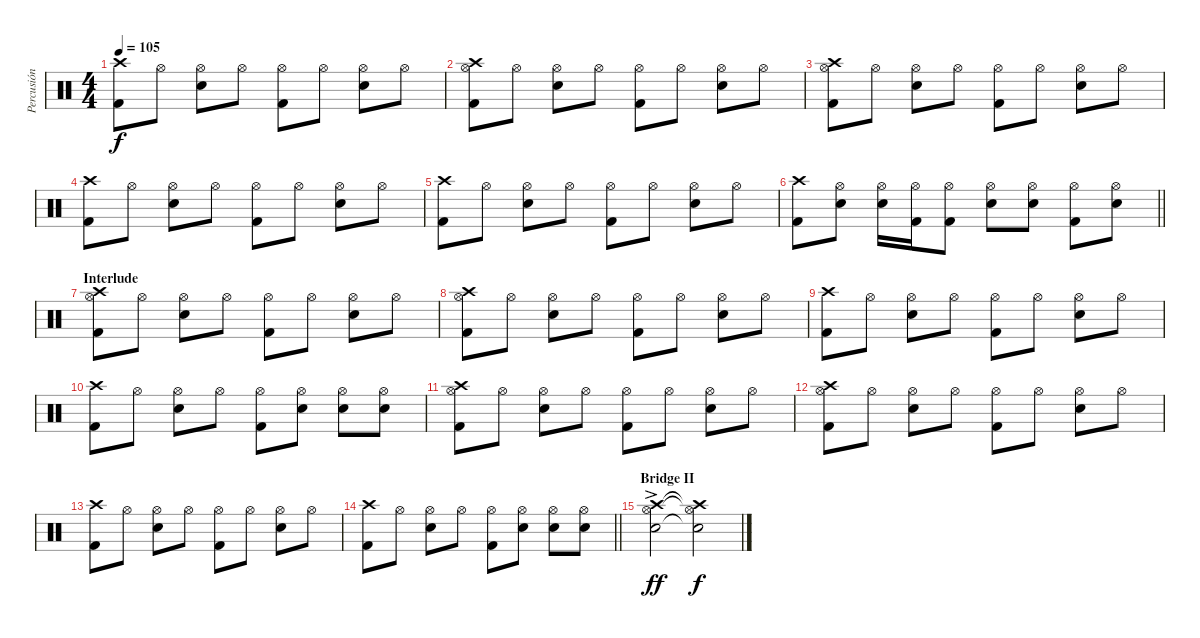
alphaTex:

\track ("Percusión" "Percusión") {instrument percussion}
\staff {score}
\articulation defaults
\ts (4 4)
\tempo 105
\clef neutral
\ks c
("Crash high (hit)" "Kick (hit) 2").8{dy f} "Hi-Hat (open)".8 ("Hi-Hat (open)" "Snare (hit) 2").8 "Hi-Hat (open)".8 ("Hi-Hat (open)" "Kick (hit) 2").8 "Hi-Hat (open)".8 ("Hi-Hat (open)" "Snare (hit) 2").8 "Hi-Hat (open)".8 |
("Hi-Hat (open)" "Kick (hit) 2" "Crash high (hit)").8 "Hi-Hat (open)".8 ("Hi-Hat (open)" "Snare (hit) 2").8 "Hi-Hat (open)".8 ("Hi-Hat (open)" "Kick (hit) 2").8 "Hi-Hat (open)".8 ("Hi-Hat (open)" "Snare (hit) 2").8 "Hi-Hat (open)".8 |
("Hi-Hat (open)" "Kick (hit) 2" "Crash high (hit)").8 "Hi-Hat (open)".8 ("Hi-Hat (open)" "Snare (hit) 2").8 "Hi-Hat (open)".8 ("Hi-Hat (open)" "Kick (hit) 2").8 "Hi-Hat (open)".8 ("Hi-Hat (open)" "Snare (hit) 2").8 "Hi-Hat (open)".8 |
("Crash high (hit)" "Kick (hit) 2").8 "Hi-Hat (open)".8 ("Hi-Hat (open)" "Snare (hit) 2").8 "Hi-Hat (open)".8 ("Hi-Hat (open)" "Kick (hit) 2").8 "Hi-Hat (open)".8 ("Hi-Hat (open)" "Snare (hit) 2").8 "Hi-Hat (open)".8 |
("Crash high (hit)" "Kick (hit) 2").8 "Hi-Hat (open)".8 ("Hi-Hat (open)" "Snare (hit) 2").8 "Hi-Hat (open)".8 ("Hi-Hat (open)" "Kick (hit) 2").8 "Hi-Hat (open)".8 ("Hi-Hat (open)" "Snare (hit) 2").8 "Hi-Hat (open)".8 |
\barLineRight lightlight
("Crash high (hit)" "Kick (hit) 2").8 ("Hi-Hat (open)" "Snare (hit) 2").8 ("Hi-Hat (open)" "Snare (hit) 2").16 ("Hi-Hat (open)" "Kick (hit) 2").16 ("Hi-Hat (open)" "Kick (hit) 2").8 ("Hi-Hat (open)" "Snare (hit) 2").8 ("Hi-Hat (open)" "Snare (hit) 2").8 ("Hi-Hat (open)" "Kick (hit) 2").8 ("Hi-Hat (open)" "Snare (hit) 2").8 |
\section ("" "Interlude")
("Hi-Hat (open)" "Kick (hit) 2" "Crash high (hit)").8 "Hi-Hat (open)".8 ("Hi-Hat (open)" "Snare (hit) 2").8 "Hi-Hat (open)".8 ("Hi-Hat (open)" "Kick (hit) 2").8 "Hi-Hat (open)".8 ("Hi-Hat (open)" "Snare (hit) 2").8 "Hi-Hat (open)".8 |
("Hi-Hat (open)" "Kick (hit) 2" "Crash high (hit)").8 "Hi-Hat (open)".8 ("Hi-Hat (open)" "Snare (hit) 2").8 "Hi-Hat (open)".8 ("Hi-Hat (open)" "Kick (hit) 2").8 "Hi-Hat (open)".8 ("Hi-Hat (open)" "Snare (hit) 2").8 "Hi-Hat (open)".8 |
("Crash high (hit)" "Kick (hit) 2").8 "Hi-Hat (open)".8 ("Hi-Hat (open)" "Snare (hit) 2").8 "Hi-Hat (open)".8 ("Hi-Hat (open)" "Kick (hit) 2").8 "Hi-Hat (open)".8 ("Hi-Hat (open)" "Snare (hit) 2").8 "Hi-Hat (open)".8 |
("Crash high (hit)" "Kick (hit) 2").8 "Hi-Hat (open)".8 ("Hi-Hat (open)" "Snare (hit) 2").8 "Hi-Hat (open)".8 ("Hi-Hat (open)" "Kick (hit) 2").8 ("Hi-Hat (open)" "Snare (hit) 2").8 ("Hi-Hat (open)" "Snare (hit) 2").8 ("Hi-Hat (open)" "Snare (hit) 2").8 |
("Hi-Hat (open)" "Kick (hit) 2" "Crash high (hit)").8 "Hi-Hat (open)".8 ("Hi-Hat (open)" "Snare (hit) 2").8 "Hi-Hat (open)".8 ("Hi-Hat (open)" "Kick (hit) 2").8 "Hi-Hat (open)".8 ("Hi-Hat (open)" "Snare (hit) 2").8 "Hi-Hat (open)".8 |
("Hi-Hat (open)" "Kick (hit) 2" "Crash high (hit)").8 "Hi-Hat (open)".8 ("Hi-Hat (open)" "Snare (hit) 2").8 "Hi-Hat (open)".8 ("Hi-Hat (open)" "Kick (hit) 2").8 "Hi-Hat (open)".8 ("Hi-Hat (open)" "Snare (hit) 2").8 "Hi-Hat (open)".8 |
("Crash high (hit)" "Kick (hit) 2").8 "Hi-Hat (open)".8 ("Hi-Hat (open)" "Snare (hit) 2").8 "Hi-Hat (open)".8 ("Hi-Hat (open)" "Kick (hit) 2").8 "Hi-Hat (open)".8 ("Hi-Hat (open)" "Snare (hit) 2").8 "Hi-Hat (open)".8 |
\barLineRight lightlight
("Crash high (hit)" "Kick (hit) 2").8 "Hi-Hat (open)".8 ("Hi-Hat (open)" "Snare (hit) 2").8 "Hi-Hat (open)".8 ("Hi-Hat (open)" "Kick (hit) 2").8 ("Hi-Hat (open)" "Snare (hit) 2").8 ("Hi-Hat (open)" "Snare (hit) 2").8 ("Hi-Hat (open)" "Snare (hit) 2").8 |
\section ("" "Bridge II")
("Crash high (hit)" "Snare (hit) 2"{ac} "Hi-Hat (open)").2{dy ff} ("Crash high (hit)"{t} "Snare (hit) 2"{t} "Hi-Hat (open)"{t}).2{dy f}
